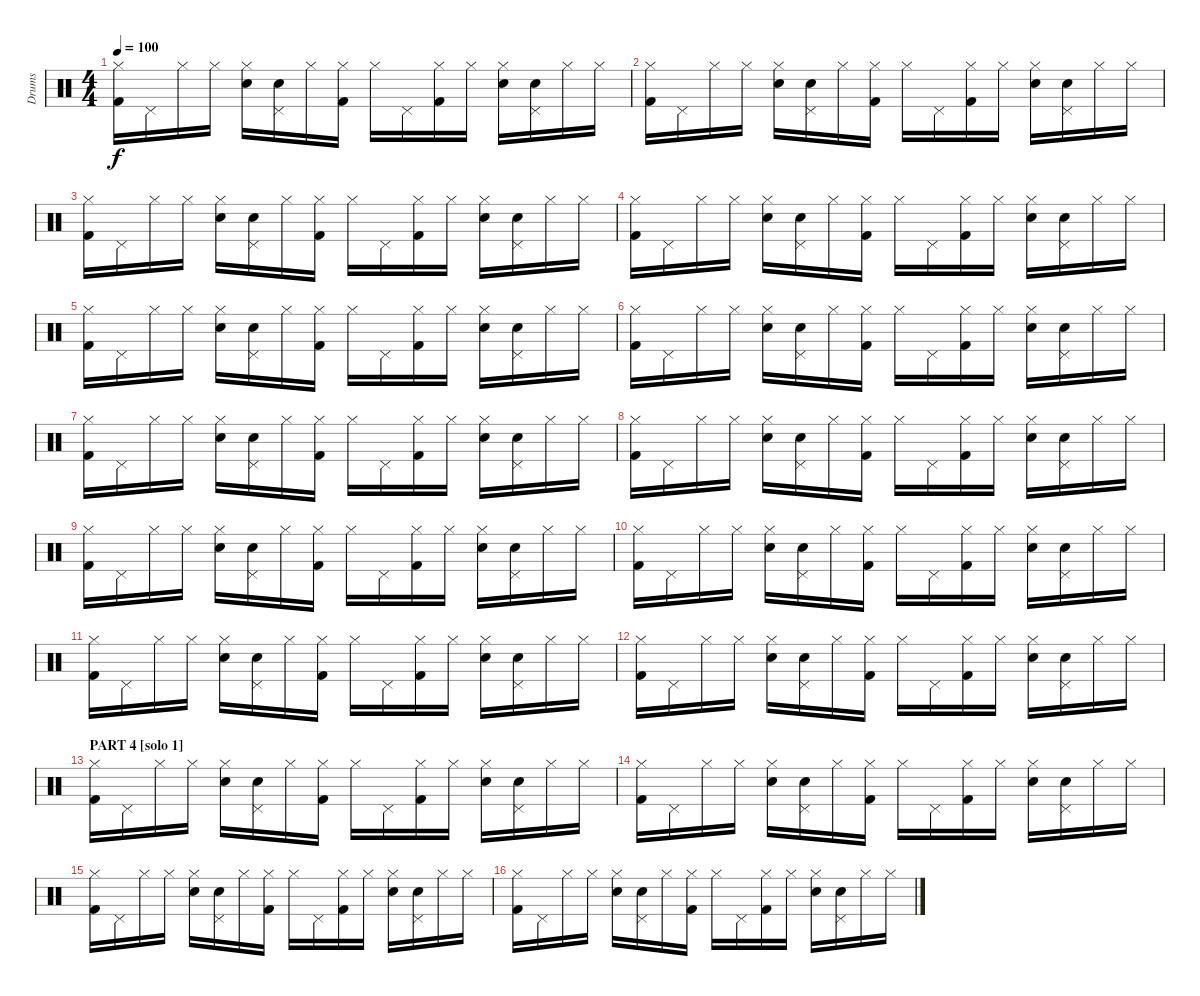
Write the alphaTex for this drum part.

\track ("Drums" "Drums") {instrument percussion}
\staff {score}
\articulation defaults
\ts (4 4)
\tempo 100
\clef neutral
\ks c
("Kick (hit) 2" "Hi-Hat (closed)").16{dy f} "Pedal Hi-Hat (hit)".16 "Hi-Hat (closed)".16 "Hi-Hat (closed)".16 ("Snare (hit) 2" "Hi-Hat (closed)").16 ("Snare (hit) 2" "Pedal Hi-Hat (hit)").16 "Hi-Hat (closed)".16 ("Kick (hit) 2" "Hi-Hat (closed)").16 "Hi-Hat (closed)".16 "Pedal Hi-Hat (hit)".16 ("Kick (hit) 2" "Hi-Hat (closed)").16 "Hi-Hat (closed)".16 ("Snare (hit) 2" "Hi-Hat (closed)").16 ("Snare (hit) 2" "Pedal Hi-Hat (hit)").16 "Hi-Hat (closed)".16 "Hi-Hat (closed)".16 |
("Kick (hit) 2" "Hi-Hat (closed)").16 "Pedal Hi-Hat (hit)".16 "Hi-Hat (closed)".16 "Hi-Hat (closed)".16 ("Snare (hit) 2" "Hi-Hat (closed)").16 ("Snare (hit) 2" "Pedal Hi-Hat (hit)").16 "Hi-Hat (closed)".16 ("Kick (hit) 2" "Hi-Hat (closed)").16 "Hi-Hat (closed)".16 "Pedal Hi-Hat (hit)".16 ("Kick (hit) 2" "Hi-Hat (closed)").16 "Hi-Hat (closed)".16 ("Snare (hit) 2" "Hi-Hat (closed)").16 ("Snare (hit) 2" "Pedal Hi-Hat (hit)").16 "Hi-Hat (closed)".16 "Hi-Hat (closed)".16 |
("Kick (hit) 2" "Hi-Hat (closed)").16 "Pedal Hi-Hat (hit)".16 "Hi-Hat (closed)".16 "Hi-Hat (closed)".16 ("Snare (hit) 2" "Hi-Hat (closed)").16 ("Snare (hit) 2" "Pedal Hi-Hat (hit)").16 "Hi-Hat (closed)".16 ("Kick (hit) 2" "Hi-Hat (closed)").16 "Hi-Hat (closed)".16 "Pedal Hi-Hat (hit)".16 ("Kick (hit) 2" "Hi-Hat (closed)").16 "Hi-Hat (closed)".16 ("Snare (hit) 2" "Hi-Hat (closed)").16 ("Snare (hit) 2" "Pedal Hi-Hat (hit)").16 "Hi-Hat (closed)".16 "Hi-Hat (closed)".16 |
("Kick (hit) 2" "Hi-Hat (closed)").16 "Pedal Hi-Hat (hit)".16 "Hi-Hat (closed)".16 "Hi-Hat (closed)".16 ("Snare (hit) 2" "Hi-Hat (closed)").16 ("Snare (hit) 2" "Pedal Hi-Hat (hit)").16 "Hi-Hat (closed)".16 ("Kick (hit) 2" "Hi-Hat (closed)").16 "Hi-Hat (closed)".16 "Pedal Hi-Hat (hit)".16 ("Kick (hit) 2" "Hi-Hat (closed)").16 "Hi-Hat (closed)".16 ("Snare (hit) 2" "Hi-Hat (closed)").16 ("Snare (hit) 2" "Pedal Hi-Hat (hit)").16 "Hi-Hat (closed)".16 "Hi-Hat (closed)".16 |
("Kick (hit) 2" "Hi-Hat (closed)").16 "Pedal Hi-Hat (hit)".16 "Hi-Hat (closed)".16 "Hi-Hat (closed)".16 ("Snare (hit) 2" "Hi-Hat (closed)").16 ("Snare (hit) 2" "Pedal Hi-Hat (hit)").16 "Hi-Hat (closed)".16 ("Kick (hit) 2" "Hi-Hat (closed)").16 "Hi-Hat (closed)".16 "Pedal Hi-Hat (hit)".16 ("Kick (hit) 2" "Hi-Hat (closed)").16 "Hi-Hat (closed)".16 ("Snare (hit) 2" "Hi-Hat (closed)").16 ("Snare (hit) 2" "Pedal Hi-Hat (hit)").16 "Hi-Hat (closed)".16 "Hi-Hat (closed)".16 |
("Kick (hit) 2" "Hi-Hat (closed)").16 "Pedal Hi-Hat (hit)".16 "Hi-Hat (closed)".16 "Hi-Hat (closed)".16 ("Snare (hit) 2" "Hi-Hat (closed)").16 ("Snare (hit) 2" "Pedal Hi-Hat (hit)").16 "Hi-Hat (closed)".16 ("Kick (hit) 2" "Hi-Hat (closed)").16 "Hi-Hat (closed)".16 "Pedal Hi-Hat (hit)".16 ("Kick (hit) 2" "Hi-Hat (closed)").16 "Hi-Hat (closed)".16 ("Snare (hit) 2" "Hi-Hat (closed)").16 ("Snare (hit) 2" "Pedal Hi-Hat (hit)").16 "Hi-Hat (closed)".16 "Hi-Hat (closed)".16 |
("Kick (hit) 2" "Hi-Hat (closed)").16 "Pedal Hi-Hat (hit)".16 "Hi-Hat (closed)".16 "Hi-Hat (closed)".16 ("Snare (hit) 2" "Hi-Hat (closed)").16 ("Snare (hit) 2" "Pedal Hi-Hat (hit)").16 "Hi-Hat (closed)".16 ("Kick (hit) 2" "Hi-Hat (closed)").16 "Hi-Hat (closed)".16 "Pedal Hi-Hat (hit)".16 ("Kick (hit) 2" "Hi-Hat (closed)").16 "Hi-Hat (closed)".16 ("Snare (hit) 2" "Hi-Hat (closed)").16 ("Snare (hit) 2" "Pedal Hi-Hat (hit)").16 "Hi-Hat (closed)".16 "Hi-Hat (closed)".16 |
("Kick (hit) 2" "Hi-Hat (closed)").16 "Pedal Hi-Hat (hit)".16 "Hi-Hat (closed)".16 "Hi-Hat (closed)".16 ("Snare (hit) 2" "Hi-Hat (closed)").16 ("Snare (hit) 2" "Pedal Hi-Hat (hit)").16 "Hi-Hat (closed)".16 ("Kick (hit) 2" "Hi-Hat (closed)").16 "Hi-Hat (closed)".16 "Pedal Hi-Hat (hit)".16 ("Kick (hit) 2" "Hi-Hat (closed)").16 "Hi-Hat (closed)".16 ("Snare (hit) 2" "Hi-Hat (closed)").16 ("Snare (hit) 2" "Pedal Hi-Hat (hit)").16 "Hi-Hat (closed)".16 "Hi-Hat (closed)".16 |
("Kick (hit) 2" "Hi-Hat (closed)").16 "Pedal Hi-Hat (hit)".16 "Hi-Hat (closed)".16 "Hi-Hat (closed)".16 ("Snare (hit) 2" "Hi-Hat (closed)").16 ("Snare (hit) 2" "Pedal Hi-Hat (hit)").16 "Hi-Hat (closed)".16 ("Kick (hit) 2" "Hi-Hat (closed)").16 "Hi-Hat (closed)".16 "Pedal Hi-Hat (hit)".16 ("Kick (hit) 2" "Hi-Hat (closed)").16 "Hi-Hat (closed)".16 ("Snare (hit) 2" "Hi-Hat (closed)").16 ("Snare (hit) 2" "Pedal Hi-Hat (hit)").16 "Hi-Hat (closed)".16 "Hi-Hat (closed)".16 |
("Kick (hit) 2" "Hi-Hat (closed)").16 "Pedal Hi-Hat (hit)".16 "Hi-Hat (closed)".16 "Hi-Hat (closed)".16 ("Snare (hit) 2" "Hi-Hat (closed)").16 ("Snare (hit) 2" "Pedal Hi-Hat (hit)").16 "Hi-Hat (closed)".16 ("Kick (hit) 2" "Hi-Hat (closed)").16 "Hi-Hat (closed)".16 "Pedal Hi-Hat (hit)".16 ("Kick (hit) 2" "Hi-Hat (closed)").16 "Hi-Hat (closed)".16 ("Snare (hit) 2" "Hi-Hat (closed)").16 ("Snare (hit) 2" "Pedal Hi-Hat (hit)").16 "Hi-Hat (closed)".16 "Hi-Hat (closed)".16 |
("Kick (hit) 2" "Hi-Hat (closed)").16 "Pedal Hi-Hat (hit)".16 "Hi-Hat (closed)".16 "Hi-Hat (closed)".16 ("Snare (hit) 2" "Hi-Hat (closed)").16 ("Snare (hit) 2" "Pedal Hi-Hat (hit)").16 "Hi-Hat (closed)".16 ("Kick (hit) 2" "Hi-Hat (closed)").16 "Hi-Hat (closed)".16 "Pedal Hi-Hat (hit)".16 ("Kick (hit) 2" "Hi-Hat (closed)").16 "Hi-Hat (closed)".16 ("Snare (hit) 2" "Hi-Hat (closed)").16 ("Snare (hit) 2" "Pedal Hi-Hat (hit)").16 "Hi-Hat (closed)".16 "Hi-Hat (closed)".16 |
("Kick (hit) 2" "Hi-Hat (closed)").16 "Pedal Hi-Hat (hit)".16 "Hi-Hat (closed)".16 "Hi-Hat (closed)".16 ("Snare (hit) 2" "Hi-Hat (closed)").16 ("Snare (hit) 2" "Pedal Hi-Hat (hit)").16 "Hi-Hat (closed)".16 ("Kick (hit) 2" "Hi-Hat (closed)").16 "Hi-Hat (closed)".16 "Pedal Hi-Hat (hit)".16 ("Kick (hit) 2" "Hi-Hat (closed)").16 "Hi-Hat (closed)".16 ("Snare (hit) 2" "Hi-Hat (closed)").16 ("Snare (hit) 2" "Pedal Hi-Hat (hit)").16 "Hi-Hat (closed)".16 "Hi-Hat (closed)".16 |
\section ("" "PART 4 [solo 1]")
("Kick (hit) 2" "Hi-Hat (closed)").16 "Pedal Hi-Hat (hit)".16 "Hi-Hat (closed)".16 "Hi-Hat (closed)".16 ("Snare (hit) 2" "Hi-Hat (closed)").16 ("Snare (hit) 2" "Pedal Hi-Hat (hit)").16 "Hi-Hat (closed)".16 ("Kick (hit) 2" "Hi-Hat (closed)").16 "Hi-Hat (closed)".16 "Pedal Hi-Hat (hit)".16 ("Kick (hit) 2" "Hi-Hat (closed)").16 "Hi-Hat (closed)".16 ("Snare (hit) 2" "Hi-Hat (closed)").16 ("Snare (hit) 2" "Pedal Hi-Hat (hit)").16 "Hi-Hat (closed)".16 "Hi-Hat (closed)".16 |
("Kick (hit) 2" "Hi-Hat (closed)").16 "Pedal Hi-Hat (hit)".16 "Hi-Hat (closed)".16 "Hi-Hat (closed)".16 ("Snare (hit) 2" "Hi-Hat (closed)").16 ("Snare (hit) 2" "Pedal Hi-Hat (hit)").16 "Hi-Hat (closed)".16 ("Kick (hit) 2" "Hi-Hat (closed)").16 "Hi-Hat (closed)".16 "Pedal Hi-Hat (hit)".16 ("Kick (hit) 2" "Hi-Hat (closed)").16 "Hi-Hat (closed)".16 ("Snare (hit) 2" "Hi-Hat (closed)").16 ("Snare (hit) 2" "Pedal Hi-Hat (hit)").16 "Hi-Hat (closed)".16 "Hi-Hat (closed)".16 |
("Kick (hit) 2" "Hi-Hat (closed)").16 "Pedal Hi-Hat (hit)".16 "Hi-Hat (closed)".16 "Hi-Hat (closed)".16 ("Snare (hit) 2" "Hi-Hat (closed)").16 ("Snare (hit) 2" "Pedal Hi-Hat (hit)").16 "Hi-Hat (closed)".16 ("Kick (hit) 2" "Hi-Hat (closed)").16 "Hi-Hat (closed)".16 "Pedal Hi-Hat (hit)".16 ("Kick (hit) 2" "Hi-Hat (closed)").16 "Hi-Hat (closed)".16 ("Snare (hit) 2" "Hi-Hat (closed)").16 ("Snare (hit) 2" "Pedal Hi-Hat (hit)").16 "Hi-Hat (closed)".16 "Hi-Hat (closed)".16 |
("Kick (hit) 2" "Hi-Hat (closed)").16 "Pedal Hi-Hat (hit)".16 "Hi-Hat (closed)".16 "Hi-Hat (closed)".16 ("Snare (hit) 2" "Hi-Hat (closed)").16 ("Snare (hit) 2" "Pedal Hi-Hat (hit)").16 "Hi-Hat (closed)".16 ("Kick (hit) 2" "Hi-Hat (closed)").16 "Hi-Hat (closed)".16 "Pedal Hi-Hat (hit)".16 ("Kick (hit) 2" "Hi-Hat (closed)").16 "Hi-Hat (closed)".16 ("Snare (hit) 2" "Hi-Hat (closed)").16 ("Snare (hit) 2" "Pedal Hi-Hat (hit)").16 "Hi-Hat (closed)".16 "Hi-Hat (closed)".16
